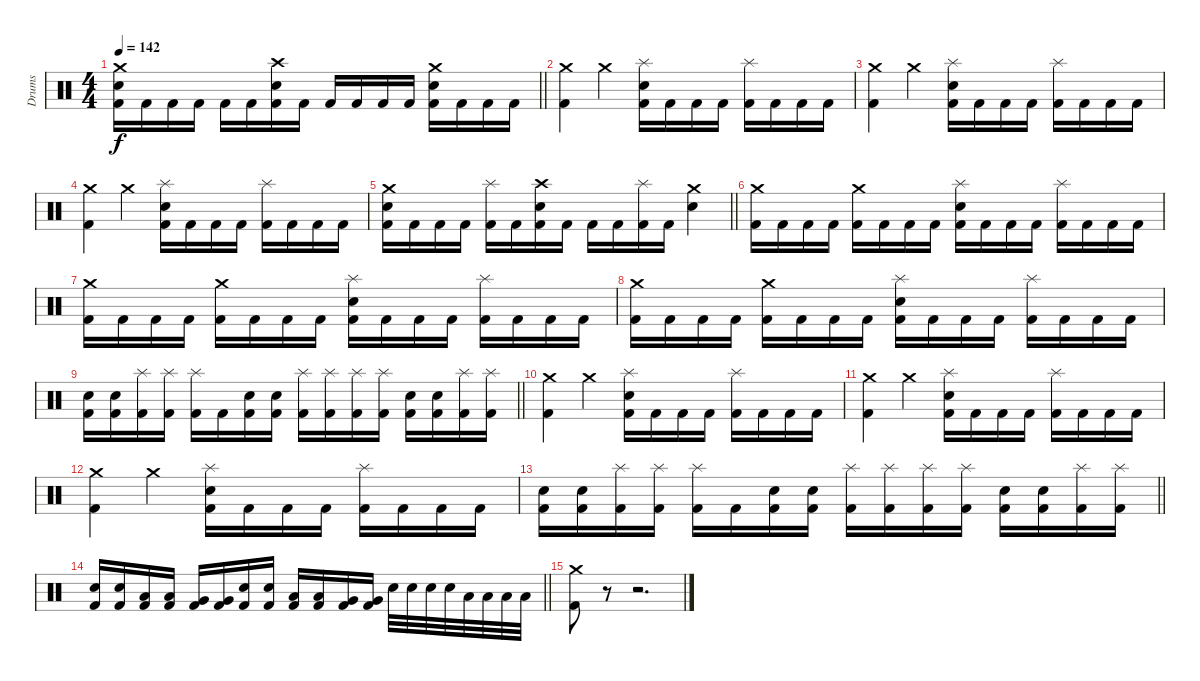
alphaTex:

\track ("Drums" "Drums") {instrument percussion}
\staff {score}
\articulation defaults
\ts (4 4)
\tempo 142
\clef neutral
\barLineRight lightlight
\ks c
("Crash medium (hit)" "Electric Snare (hit)" "Kick (hit) 2").16{dy f} "Kick (hit) 2".16 "Kick (hit) 2".16 "Kick (hit) 2".16 "Kick (hit) 2".16 "Kick (hit) 2".16 ("Crash high (hit)" "Electric Snare (hit)" "Kick (hit) 2").16 "Kick (hit) 2".16 "Kick (hit) 2".16 "Kick (hit) 2".16 "Kick (hit) 2".16 "Kick (hit) 2".16 ("Crash medium (hit)" "Electric Snare (hit)" "Kick (hit) 2").16 "Kick (hit) 2".16 "Kick (hit) 2".16 "Kick (hit) 2".16 |
("Crash medium (hit)" "Kick (hit) 2").4 "Crash medium (hit)".4 ("Splash (hit)" "Electric Snare (hit)" "Kick (hit) 2").16 "Kick (hit) 2".16 "Kick (hit) 2".16 "Kick (hit) 2".16 ("Splash (hit)" "Kick (hit) 2").16 "Kick (hit) 2".16 "Kick (hit) 2".16 "Kick (hit) 2".16 |
("Crash medium (hit)" "Kick (hit) 2").4 "Crash medium (hit)".4 ("Splash (hit)" "Electric Snare (hit)" "Kick (hit) 2").16 "Kick (hit) 2".16 "Kick (hit) 2".16 "Kick (hit) 2".16 ("Splash (hit)" "Kick (hit) 2").16 "Kick (hit) 2".16 "Kick (hit) 2".16 "Kick (hit) 2".16 |
("Crash medium (hit)" "Kick (hit) 2").4 "Crash medium (hit)".4 ("Splash (hit)" "Electric Snare (hit)" "Kick (hit) 2").16 "Kick (hit) 2".16 "Kick (hit) 2".16 "Kick (hit) 2".16 ("Splash (hit)" "Kick (hit) 2").16 "Kick (hit) 2".16 "Kick (hit) 2".16 "Kick (hit) 2".16 |
\barLineRight lightlight
("Crash medium (hit)" "Electric Snare (hit)" "Kick (hit) 2").16 "Kick (hit) 2".16 "Kick (hit) 2".16 "Kick (hit) 2".16 ("Splash (hit)" "Kick (hit) 2").16 "Kick (hit) 2".16 ("Crash high (hit)" "Electric Snare (hit)" "Kick (hit) 2").16 "Kick (hit) 2".16 "Kick (hit) 2".16 "Kick (hit) 2".16 ("Splash (hit)" "Kick (hit) 2").16 "Kick (hit) 2".16 ("Crash medium (hit)" "Electric Snare (hit)").4 |
\section ("" "")
("Crash medium (hit)" "Kick (hit) 2").16 "Kick (hit) 2".16 "Kick (hit) 2".16 "Kick (hit) 2".16 ("Crash medium (hit)" "Kick (hit) 2").16 "Kick (hit) 2".16 "Kick (hit) 2".16 "Kick (hit) 2".16 ("Splash (hit)" "Electric Snare (hit)" "Kick (hit) 2").16 "Kick (hit) 2".16 "Kick (hit) 2".16 "Kick (hit) 2".16 ("Splash (hit)" "Kick (hit) 2").16 "Kick (hit) 2".16 "Kick (hit) 2".16 "Kick (hit) 2".16 |
("Crash medium (hit)" "Kick (hit) 2").16 "Kick (hit) 2".16 "Kick (hit) 2".16 "Kick (hit) 2".16 ("Crash medium (hit)" "Kick (hit) 2").16 "Kick (hit) 2".16 "Kick (hit) 2".16 "Kick (hit) 2".16 ("Splash (hit)" "Electric Snare (hit)" "Kick (hit) 2").16 "Kick (hit) 2".16 "Kick (hit) 2".16 "Kick (hit) 2".16 ("Splash (hit)" "Kick (hit) 2").16 "Kick (hit) 2".16 "Kick (hit) 2".16 "Kick (hit) 2".16 |
("Crash medium (hit)" "Kick (hit) 2").16 "Kick (hit) 2".16 "Kick (hit) 2".16 "Kick (hit) 2".16 ("Crash medium (hit)" "Kick (hit) 2").16 "Kick (hit) 2".16 "Kick (hit) 2".16 "Kick (hit) 2".16 ("Splash (hit)" "Electric Snare (hit)" "Kick (hit) 2").16 "Kick (hit) 2".16 "Kick (hit) 2".16 "Kick (hit) 2".16 ("Splash (hit)" "Kick (hit) 2").16 "Kick (hit) 2".16 "Kick (hit) 2".16 "Kick (hit) 2".16 |
\barLineRight lightlight
("Electric Snare (hit)" "Kick (hit) 2").16 ("Electric Snare (hit)" "Kick (hit) 2").16 ("Splash (hit)" "Kick (hit) 2").16 ("Splash (hit)" "Kick (hit) 2").16 ("Splash (hit)" "Kick (hit) 2").16 "Kick (hit) 2".16 ("Electric Snare (hit)" "Kick (hit) 2").16 ("Electric Snare (hit)" "Kick (hit) 2").16 ("Splash (hit)" "Kick (hit) 2").16 ("Splash (hit)" "Kick (hit) 2").16 ("Splash (hit)" "Kick (hit) 2").16 ("Splash (hit)" "Kick (hit) 2").16 ("Electric Snare (hit)" "Kick (hit) 2").16 ("Electric Snare (hit)" "Kick (hit) 2").16 ("Splash (hit)" "Kick (hit) 2").16 ("Splash (hit)" "Kick (hit) 2").16 |
("Crash medium (hit)" "Kick (hit) 2").4 "Crash medium (hit)".4 ("Splash (hit)" "Electric Snare (hit)" "Kick (hit) 2").16 "Kick (hit) 2".16 "Kick (hit) 2".16 "Kick (hit) 2".16 ("Splash (hit)" "Kick (hit) 2").16 "Kick (hit) 2".16 "Kick (hit) 2".16 "Kick (hit) 2".16 |
("Crash medium (hit)" "Kick (hit) 2").4 "Crash medium (hit)".4 ("Splash (hit)" "Electric Snare (hit)" "Kick (hit) 2").16 "Kick (hit) 2".16 "Kick (hit) 2".16 "Kick (hit) 2".16 ("Splash (hit)" "Kick (hit) 2").16 "Kick (hit) 2".16 "Kick (hit) 2".16 "Kick (hit) 2".16 |
("Crash medium (hit)" "Kick (hit) 2").4 "Crash medium (hit)".4 ("Splash (hit)" "Electric Snare (hit)" "Kick (hit) 2").16 "Kick (hit) 2".16 "Kick (hit) 2".16 "Kick (hit) 2".16 ("Splash (hit)" "Kick (hit) 2").16 "Kick (hit) 2".16 "Kick (hit) 2".16 "Kick (hit) 2".16 |
\barLineRight lightlight
("Electric Snare (hit)" "Kick (hit) 2").16 ("Electric Snare (hit)" "Kick (hit) 2").16 ("Splash (hit)" "Kick (hit) 2").16 ("Splash (hit)" "Kick (hit) 2").16 ("Splash (hit)" "Kick (hit) 2").16 "Kick (hit) 2".16 ("Electric Snare (hit)" "Kick (hit) 2").16 ("Electric Snare (hit)" "Kick (hit) 2").16 ("Splash (hit)" "Kick (hit) 2").16 ("Splash (hit)" "Kick (hit) 2").16 ("Splash (hit)" "Kick (hit) 2").16 ("Splash (hit)" "Kick (hit) 2").16 ("Electric Snare (hit)" "Kick (hit) 2").16 ("Electric Snare (hit)" "Kick (hit) 2").16 ("Splash (hit)" "Kick (hit) 2").16 ("Splash (hit)" "Kick (hit) 2").16 |
\barLineRight lightlight
("Electric Snare (hit)" "Kick (hit) 2").16 ("Electric Snare (hit)" "Kick (hit) 2").16 ("Low Tom (hit)" "Kick (hit) 2").16 ("Low Tom (hit)" "Kick (hit) 2").16 ("Very Low Tom (hit)" "Kick (hit) 2").16 ("Very Low Tom (hit)" "Kick (hit) 2").16 ("Electric Snare (hit)" "Kick (hit) 2").16 ("Electric Snare (hit)" "Kick (hit) 2").16 ("Low Tom (hit)" "Kick (hit) 2").16 ("Low Tom (hit)" "Kick (hit) 2").16 ("Very Low Tom (hit)" "Kick (hit) 2").16 ("Very Low Tom (hit)" "Kick (hit) 2").16 "Electric Snare (hit)".32 "Electric Snare (hit)".32 "Electric Snare (hit)".32 "Electric Snare (hit)".32 "Low Tom (hit)".32 "Low Tom (hit)".32 "Low Tom (hit)".32 "Low Tom (hit)".32 |
("Crash medium (hit)" "Kick (hit) 2").8 r.8{volume 0} r.2{d}
